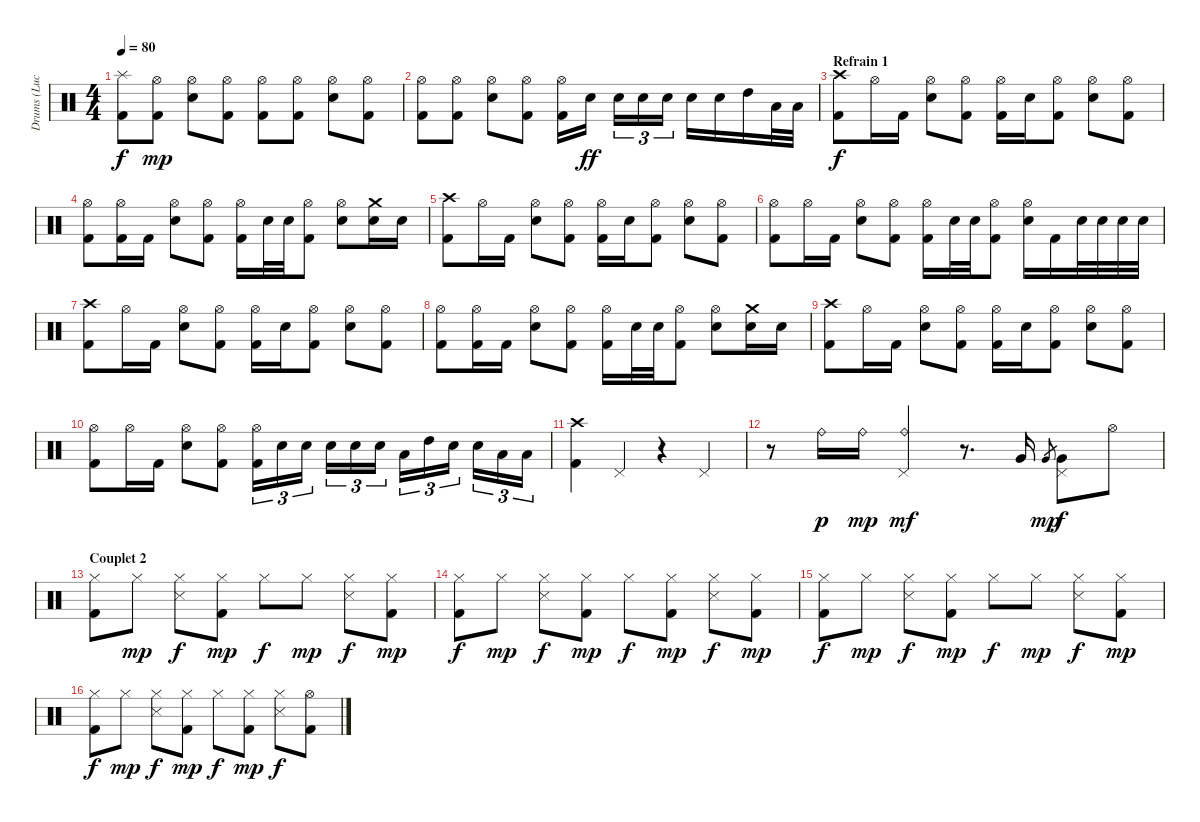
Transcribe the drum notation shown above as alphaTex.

\track ("Drums (Luc)" "Drums (Luc") {instrument percussion}
\staff {score}
\articulation defaults
\ts (4 4)
\tempo 80
\clef neutral
\ks c
("Splash (hit)" "Kick (hit) 2").8{dy f} ("Hi-Hat (open)" "Kick (hit) 2").8{dy mp} ("Hi-Hat (open)" "Snare (hit) 2").8 ("Hi-Hat (open)" "Kick (hit) 2").8 ("Hi-Hat (open)" "Kick (hit) 2").8 ("Hi-Hat (open)" "Kick (hit) 2").8 ("Hi-Hat (open)" "Snare (hit) 2").8 ("Hi-Hat (open)" "Kick (hit) 2").8 |
("Hi-Hat (open)" "Kick (hit) 2").8 ("Hi-Hat (open)" "Kick (hit) 2").8 ("Hi-Hat (open)" "Snare (hit) 2").8 ("Hi-Hat (open)" "Kick (hit) 2").8 ("Hi-Hat (open)" "Kick (hit) 2").16 "Snare (hit) 2".16{dy ff} "Snare (hit) 2".16{tu (3 2)} "Snare (hit) 2".16{tu (3 2)} "Snare (hit) 2".16{tu (3 2)} "Snare (hit) 2".16 "Snare (hit) 2".16 "High Tom (hit)".16 "Low Tom (hit)".32 "Low Floor Tom (hit)".32 |
\section ("" "Refrain 1")
("Crash high (hit)" "Kick (hit) 2").8{dy f} "Hi-Hat (open)".16 "Kick (hit) 2".16 ("Hi-Hat (open)" "Electric Snare (hit)").8 ("Hi-Hat (open)" "Kick (hit) 2").8 ("Hi-Hat (open)" "Kick (hit) 2").16 "Electric Snare (hit)".16 ("Hi-Hat (open)" "Kick (hit) 2").8 ("Hi-Hat (open)" "Electric Snare (hit)").8 ("Hi-Hat (open)" "Kick (hit) 2").8 |
("Hi-Hat (open)" "Kick (hit) 2").8 ("Hi-Hat (open)" "Kick (hit) 2").16 "Kick (hit) 2".16 ("Hi-Hat (open)" "Electric Snare (hit)").8 ("Hi-Hat (open)" "Kick (hit) 2").8 ("Hi-Hat (open)" "Kick (hit) 2").16 "Electric Snare (hit)".32 "Electric Snare (hit)".32 ("Hi-Hat (open)" "Kick (hit) 2").8 ("Hi-Hat (open)" "Electric Snare (hit)").8 ("Crash medium (hit)" "Electric Snare (hit)").16 "Electric Snare (hit)".16 |
("Crash high (hit)" "Kick (hit) 2").8 "Hi-Hat (open)".16 "Kick (hit) 2".16 ("Hi-Hat (open)" "Electric Snare (hit)").8 ("Hi-Hat (open)" "Kick (hit) 2").8 ("Hi-Hat (open)" "Kick (hit) 2").16 "Electric Snare (hit)".16 ("Hi-Hat (open)" "Kick (hit) 2").8 ("Hi-Hat (open)" "Electric Snare (hit)").8 ("Hi-Hat (open)" "Kick (hit) 2").8 |
("Hi-Hat (open)" "Kick (hit) 2").8 "Hi-Hat (open)".16 "Kick (hit) 2".16 ("Hi-Hat (open)" "Electric Snare (hit)").8 ("Hi-Hat (open)" "Kick (hit) 2").8 ("Hi-Hat (open)" "Kick (hit) 2").16 "Electric Snare (hit)".32 "Electric Snare (hit)".32 ("Hi-Hat (open)" "Kick (hit) 2").8 ("Hi-Hat (open)" "Electric Snare (hit)").16 "Kick (hit) 2".16 "Electric Snare (hit)".32 "Electric Snare (hit)".32 "Electric Snare (hit)".32 "Electric Snare (hit)".32 |
("Crash high (hit)" "Kick (hit) 2").8 "Hi-Hat (open)".16 "Kick (hit) 2".16 ("Hi-Hat (open)" "Electric Snare (hit)").8 ("Hi-Hat (open)" "Kick (hit) 2").8 ("Hi-Hat (open)" "Kick (hit) 2").16 "Electric Snare (hit)".16 ("Hi-Hat (open)" "Kick (hit) 2").8 ("Hi-Hat (open)" "Electric Snare (hit)").8 ("Hi-Hat (open)" "Kick (hit) 2").8 |
("Hi-Hat (open)" "Kick (hit) 2").8 ("Hi-Hat (open)" "Kick (hit) 2").16 "Kick (hit) 2".16 ("Hi-Hat (open)" "Electric Snare (hit)").8 ("Hi-Hat (open)" "Kick (hit) 2").8 ("Hi-Hat (open)" "Kick (hit) 2").16 "Electric Snare (hit)".32 "Electric Snare (hit)".32 ("Hi-Hat (open)" "Kick (hit) 2").8 ("Hi-Hat (open)" "Electric Snare (hit)").8 ("Crash medium (hit)" "Electric Snare (hit)").16 "Electric Snare (hit)".16 |
("Crash high (hit)" "Kick (hit) 2").8 "Hi-Hat (open)".16 "Kick (hit) 2".16 ("Hi-Hat (open)" "Electric Snare (hit)").8 ("Hi-Hat (open)" "Kick (hit) 2").8 ("Hi-Hat (open)" "Kick (hit) 2").16 "Electric Snare (hit)".16 ("Hi-Hat (open)" "Kick (hit) 2").8 ("Hi-Hat (open)" "Electric Snare (hit)").8 ("Hi-Hat (open)" "Kick (hit) 2").8 |
("Hi-Hat (open)" "Kick (hit) 2").8 "Hi-Hat (open)".16 "Kick (hit) 2".16 ("Hi-Hat (open)" "Electric Snare (hit)").8 ("Hi-Hat (open)" "Kick (hit) 2").8 ("Hi-Hat (open)" "Kick (hit) 2").16{tu (3 2)} "Electric Snare (hit)".16{tu (3 2)} "Electric Snare (hit)".16{tu (3 2)} "Electric Snare (hit)".16{tu (3 2)} "Electric Snare (hit)".16{tu (3 2)} "Electric Snare (hit)".16{tu (3 2)} "Low Tom (hit)".16{tu (3 2)} "High Tom (hit)".16{tu (3 2)} "Electric Snare (hit)".16{tu (3 2)} "Electric Snare (hit)".16{tu (3 2)} "Low Tom (hit)".16{tu (3 2)} "Low Floor Tom (hit)".16{tu (3 2)} |
("Crash high (hit)" "Kick (hit) 2").4 "Pedal Hi-Hat (hit)".4 r.4 "Pedal Hi-Hat (hit)".4 |
r.8 "Ride (bell)".16{dy p} "Ride (bell)".16{dy mp} ("Ride (bell)" "Pedal Hi-Hat (hit)").4{dy mf} r.8{d} "Very Low Tom (hit)".16 "Very Low Tom (hit)".8{gr dy mp} ("Very Low Tom (hit)" "Pedal Hi-Hat (hit)").8{dy f} "Hi-Hat (open)".8 |
\section ("" "Couplet 2")
("Hi-Hat (closed)" "Kick (hit) 2").8 "Hi-Hat (closed)".8{dy mp} ("Hi-Hat (closed)" "Snare (side stick) 3").8{dy f} ("Hi-Hat (closed)" "Kick (hit) 2").8{dy mp} "Hi-Hat (closed)".8{dy f} "Hi-Hat (closed)".8{dy mp} ("Hi-Hat (closed)" "Snare (side stick) 3").8{dy f} ("Hi-Hat (closed)" "Kick (hit) 2").8{dy mp} |
("Hi-Hat (closed)" "Kick (hit) 2").8{dy f} "Hi-Hat (closed)".8{dy mp} ("Hi-Hat (closed)" "Snare (side stick) 3").8{dy f} ("Hi-Hat (closed)" "Kick (hit) 2").8{dy mp} "Hi-Hat (closed)".8{dy f} ("Hi-Hat (closed)" "Kick (hit) 2").8{dy mp} ("Hi-Hat (closed)" "Snare (side stick) 3").8{dy f} ("Hi-Hat (closed)" "Kick (hit) 2").8{dy mp} |
("Hi-Hat (closed)" "Kick (hit) 2").8{dy f} "Hi-Hat (closed)".8{dy mp} ("Hi-Hat (closed)" "Snare (side stick) 3").8{dy f} ("Hi-Hat (closed)" "Kick (hit) 2").8{dy mp} "Hi-Hat (closed)".8{dy f} "Hi-Hat (closed)".8{dy mp} ("Hi-Hat (closed)" "Snare (side stick) 3").8{dy f} ("Hi-Hat (closed)" "Kick (hit) 2").8{dy mp} |
("Hi-Hat (closed)" "Kick (hit) 2").8{dy f} "Hi-Hat (closed)".8{dy mp} ("Hi-Hat (closed)" "Snare (side stick) 3").8{dy f} ("Hi-Hat (closed)" "Kick (hit) 2").8{dy mp} "Hi-Hat (closed)".8{dy f} ("Hi-Hat (closed)" "Kick (hit) 2").8{dy mp} ("Hi-Hat (closed)" "Snare (side stick) 3").8{dy f} ("Hi-Hat (open)" "Kick (hit) 2").8
